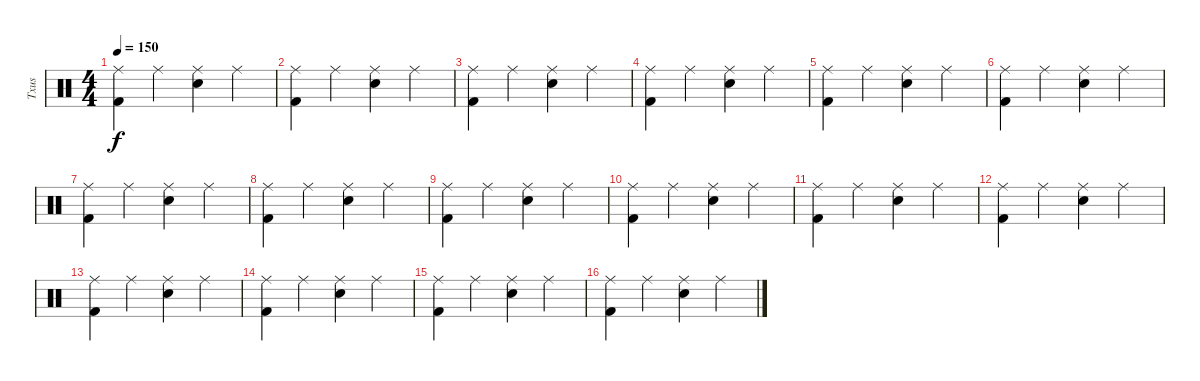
\track ("Txus" "Txus") {instrument percussion}
\staff {score}
\articulation defaults
\ts (4 4)
\tempo 150
\clef neutral
\ks c
("Ride (middle)" "Kick (hit) 2").4{dy f} "Ride (middle)".4 ("Snare (hit) 2" "Ride (middle)").4 "Ride (middle)".4 |
("Ride (middle)" "Kick (hit) 2").4 "Ride (middle)".4 ("Snare (hit) 2" "Ride (middle)").4 "Ride (middle)".4 |
("Ride (middle)" "Kick (hit) 2").4 "Ride (middle)".4 ("Snare (hit) 2" "Ride (middle)").4 "Ride (middle)".4 |
("Ride (middle)" "Kick (hit) 2").4 "Ride (middle)".4 ("Snare (hit) 2" "Ride (middle)").4 "Ride (middle)".4 |
("Ride (middle)" "Kick (hit) 2").4 "Ride (middle)".4 ("Snare (hit) 2" "Ride (middle)").4 "Ride (middle)".4 |
("Ride (middle)" "Kick (hit) 2").4 "Ride (middle)".4 ("Snare (hit) 2" "Ride (middle)").4 "Ride (middle)".4 |
("Ride (middle)" "Kick (hit) 2").4 "Ride (middle)".4 ("Snare (hit) 2" "Ride (middle)").4 "Ride (middle)".4 |
("Ride (middle)" "Kick (hit) 2").4 "Ride (middle)".4 ("Snare (hit) 2" "Ride (middle)").4 "Ride (middle)".4 |
("Ride (middle)" "Kick (hit) 2").4 "Ride (middle)".4 ("Snare (hit) 2" "Ride (middle)").4 "Ride (middle)".4 |
("Ride (middle)" "Kick (hit) 2").4 "Ride (middle)".4 ("Snare (hit) 2" "Ride (middle)").4 "Ride (middle)".4 |
("Ride (middle)" "Kick (hit) 2").4 "Ride (middle)".4 ("Snare (hit) 2" "Ride (middle)").4 "Ride (middle)".4 |
("Ride (middle)" "Kick (hit) 2").4 "Ride (middle)".4 ("Snare (hit) 2" "Ride (middle)").4 "Ride (middle)".4 |
("Ride (middle)" "Kick (hit) 2").4 "Ride (middle)".4 ("Snare (hit) 2" "Ride (middle)").4 "Ride (middle)".4 |
("Ride (middle)" "Kick (hit) 2").4 "Ride (middle)".4 ("Snare (hit) 2" "Ride (middle)").4 "Ride (middle)".4 |
("Ride (middle)" "Kick (hit) 2").4 "Ride (middle)".4 ("Snare (hit) 2" "Ride (middle)").4 "Ride (middle)".4 |
("Ride (middle)" "Kick (hit) 2").4 "Ride (middle)".4 ("Snare (hit) 2" "Ride (middle)").4 "Ride (middle)".4
